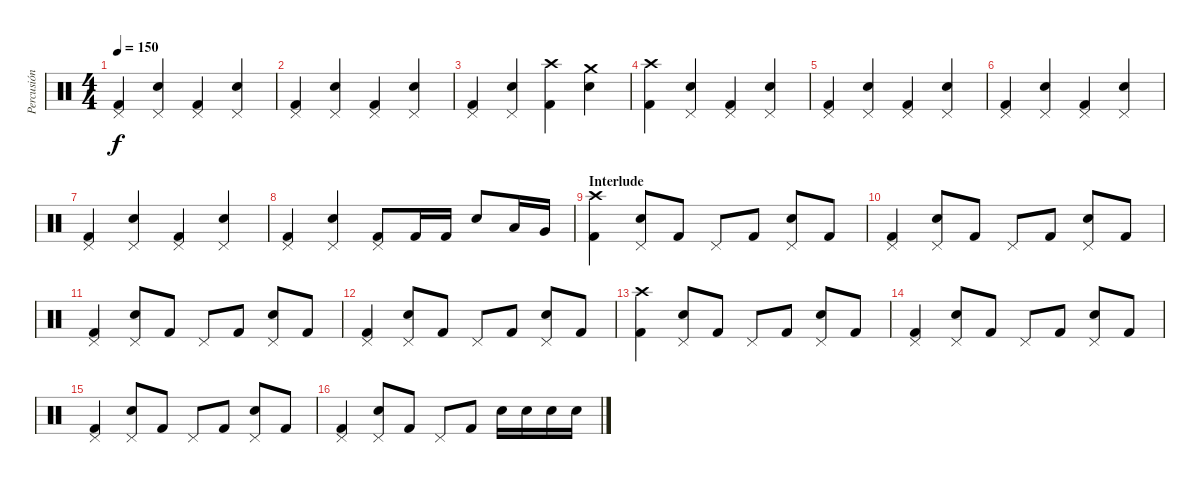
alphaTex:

\track ("Percusión" "Percusión") {instrument percussion}
\staff {score}
\articulation defaults
\ts (4 4)
\tempo 150
\clef neutral
\ks c
("Pedal Hi-Hat (hit)" "Kick (hit) 2").4{dy f} ("Pedal Hi-Hat (hit)" "Electric Snare (hit)").4 ("Pedal Hi-Hat (hit)" "Kick (hit) 2").4 ("Pedal Hi-Hat (hit)" "Electric Snare (hit)").4 |
("Pedal Hi-Hat (hit)" "Kick (hit) 2").4 ("Pedal Hi-Hat (hit)" "Electric Snare (hit)").4 ("Pedal Hi-Hat (hit)" "Kick (hit) 2").4 ("Pedal Hi-Hat (hit)" "Electric Snare (hit)").4 |
("Pedal Hi-Hat (hit)" "Kick (hit) 2").4 ("Pedal Hi-Hat (hit)" "Electric Snare (hit)").4 ("Crash high (hit)" "Kick (hit) 2").4 ("Crash medium (hit)" "Electric Snare (hit)").4 |
("Crash high (hit)" "Kick (hit) 2").4 ("Pedal Hi-Hat (hit)" "Electric Snare (hit)").4 ("Pedal Hi-Hat (hit)" "Kick (hit) 2").4 ("Pedal Hi-Hat (hit)" "Electric Snare (hit)").4 |
("Pedal Hi-Hat (hit)" "Kick (hit) 2").4 ("Pedal Hi-Hat (hit)" "Electric Snare (hit)").4 ("Pedal Hi-Hat (hit)" "Kick (hit) 2").4 ("Pedal Hi-Hat (hit)" "Electric Snare (hit)").4 |
("Pedal Hi-Hat (hit)" "Kick (hit) 2").4 ("Pedal Hi-Hat (hit)" "Electric Snare (hit)").4 ("Pedal Hi-Hat (hit)" "Kick (hit) 2").4 ("Pedal Hi-Hat (hit)" "Electric Snare (hit)").4 |
("Pedal Hi-Hat (hit)" "Kick (hit) 2").4 ("Pedal Hi-Hat (hit)" "Electric Snare (hit)").4 ("Pedal Hi-Hat (hit)" "Kick (hit) 2").4 ("Pedal Hi-Hat (hit)" "Electric Snare (hit)").4 |
("Pedal Hi-Hat (hit)" "Kick (hit) 2").4 ("Pedal Hi-Hat (hit)" "Electric Snare (hit)").4 ("Pedal Hi-Hat (hit)" "Kick (hit) 2").8 "Kick (hit) 2".16 "Kick (hit) 2".16 "Electric Snare (hit)".8 "Low Tom (hit)".16 "Very Low Tom (hit)".16 |
\section ("" "Interlude")
("Crash high (hit)" "Kick (hit) 2").4 ("Pedal Hi-Hat (hit)" "Electric Snare (hit)").8 "Kick (hit) 2".8 "Pedal Hi-Hat (hit)".8 "Kick (hit) 2".8 ("Pedal Hi-Hat (hit)" "Electric Snare (hit)").8 "Kick (hit) 2".8 |
("Pedal Hi-Hat (hit)" "Kick (hit) 2").4 ("Pedal Hi-Hat (hit)" "Electric Snare (hit)").8 "Kick (hit) 2".8 "Pedal Hi-Hat (hit)".8 "Kick (hit) 2".8 ("Pedal Hi-Hat (hit)" "Electric Snare (hit)").8 "Kick (hit) 2".8 |
("Pedal Hi-Hat (hit)" "Kick (hit) 2").4 ("Pedal Hi-Hat (hit)" "Electric Snare (hit)").8 "Kick (hit) 2".8 "Pedal Hi-Hat (hit)".8 "Kick (hit) 2".8 ("Pedal Hi-Hat (hit)" "Electric Snare (hit)").8 "Kick (hit) 2".8 |
("Pedal Hi-Hat (hit)" "Kick (hit) 2").4 ("Pedal Hi-Hat (hit)" "Electric Snare (hit)").8 "Kick (hit) 2".8 "Pedal Hi-Hat (hit)".8 "Kick (hit) 2".8 ("Pedal Hi-Hat (hit)" "Electric Snare (hit)").8 "Kick (hit) 2".8 |
("Crash high (hit)" "Kick (hit) 2").4 ("Pedal Hi-Hat (hit)" "Electric Snare (hit)").8 "Kick (hit) 2".8 "Pedal Hi-Hat (hit)".8 "Kick (hit) 2".8 ("Pedal Hi-Hat (hit)" "Electric Snare (hit)").8 "Kick (hit) 2".8 |
("Pedal Hi-Hat (hit)" "Kick (hit) 2").4 ("Pedal Hi-Hat (hit)" "Electric Snare (hit)").8 "Kick (hit) 2".8 "Pedal Hi-Hat (hit)".8 "Kick (hit) 2".8 ("Pedal Hi-Hat (hit)" "Electric Snare (hit)").8 "Kick (hit) 2".8 |
("Pedal Hi-Hat (hit)" "Kick (hit) 2").4 ("Pedal Hi-Hat (hit)" "Electric Snare (hit)").8 "Kick (hit) 2".8 "Pedal Hi-Hat (hit)".8 "Kick (hit) 2".8 ("Pedal Hi-Hat (hit)" "Electric Snare (hit)").8 "Kick (hit) 2".8 |
("Pedal Hi-Hat (hit)" "Kick (hit) 2").4 ("Pedal Hi-Hat (hit)" "Electric Snare (hit)").8 "Kick (hit) 2".8 "Pedal Hi-Hat (hit)".8 "Kick (hit) 2".8 "Electric Snare (hit)".16 "Electric Snare (hit)".16 "Electric Snare (hit)".16 "Electric Snare (hit)".16
